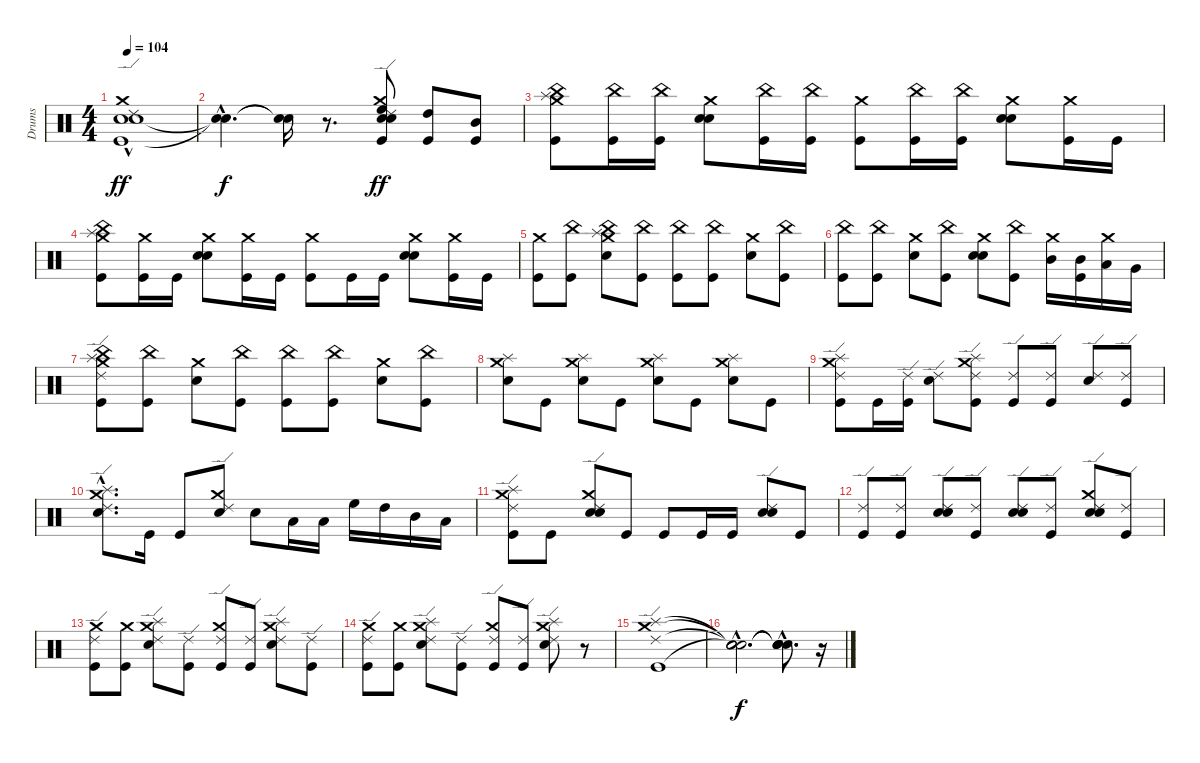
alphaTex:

\track ("Drums" "Drums") {instrument percussion}
\staff {score}
\articulation defaults
\ts (4 4)
\tempo 104
\clef neutral
\ks c
("Kick (hit)"{hac} "Snare (hit) 2"{hac} "Electric Snare (hit)"{hac} "Crash medium (hit)" "Ride (edge) 2").1{dy ff} |
("Snare (hit)"{hac t} "Snare (hit)"{hac t}).4{d dy f} ("Snare (hit)"{t} "Snare (hit)"{t}).16 r.8{d} ("Kick (hit)" "Snare (hit) 2" "Electric Snare (hit)" "High Floor Tom (hit)" "Crash medium (hit)" "Ride (edge) 2").8{dy ff} ("Kick (hit)" "High Tom (hit)").8 ("Kick (hit)" "Mid Tom (hit)").8 |
("Kick (hit)" "China (hit)" "Splash (hit)" "Crash medium (hit)").8 ("Kick (hit)" "China (hit)").16 ("Kick (hit)" "China (hit)").16 ("Snare (hit) 2" "Electric Snare (hit)" "Crash medium (hit)").8 ("Kick (hit)" "China (hit)").16 ("Kick (hit)" "China (hit)").16 ("Kick (hit)" "Crash medium (hit)").8 ("Kick (hit)" "China (hit)").16 ("Kick (hit)" "China (hit)").16 ("Snare (hit) 2" "Electric Snare (hit)" "Crash medium (hit)").8 ("Kick (hit)" "Crash medium (hit)").16 "Kick (hit)".16 |
("Kick (hit)" "China (hit)" "Splash (hit)" "Crash medium (hit)").8 ("Kick (hit)" "Crash medium (hit)").16 "Kick (hit)".16 ("Snare (hit) 2" "Electric Snare (hit)" "Crash medium (hit)").8 ("Kick (hit)" "Crash medium (hit)").16 "Kick (hit)".16 ("Kick (hit)" "Crash medium (hit)").8 "Kick (hit)".16 "Kick (hit)".16 ("Snare (hit) 2" "Electric Snare (hit)" "Crash medium (hit)").8 ("Kick (hit)" "Crash medium (hit)").16 "Kick (hit)".16 |
("Kick (hit)" "Crash medium (hit)").8 ("Kick (hit)" "China (hit)").8 ("Electric Snare (hit)" "China (hit)" "Splash (hit)" "Crash medium (hit)").8 ("Kick (hit)" "China (hit)").8 ("Kick (hit)" "China (hit)").8 ("Kick (hit)" "China (hit)").8 ("Electric Snare (hit)" "Crash medium (hit)").8 ("Kick (hit)" "China (hit)").8 |
("Kick (hit)" "China (hit)").8 ("Kick (hit)" "China (hit)").8 ("Electric Snare (hit)" "Crash medium (hit)").8 ("Kick (hit)" "China (hit)").8 ("Snare (hit) 2" "Electric Snare (hit)" "Crash medium (hit)").8 ("Kick (hit)" "China (hit)").8 ("Mid Tom (hit)" "Crash medium (hit)").16 ("Kick (hit)" "Mid Tom (hit)").16 ("Low Tom (hit)" "Crash medium (hit)").16 "Very Low Tom (hit)".16 |
("Kick (hit)" "China (hit)" "Splash (hit)" "Crash medium (hit)" "Ride (edge) 2").8 ("Kick (hit)" "China (hit)").8 ("Electric Snare (hit)" "Crash medium (hit)").8 ("Kick (hit)" "China (hit)").8 ("Kick (hit)" "China (hit)").8 ("Kick (hit)" "China (hit)").8 ("Electric Snare (hit)" "Crash medium (hit)").8 ("Kick (hit)" "China (hit)").8 |
("Electric Snare (hit)" "Splash (hit)" "Crash medium (hit)").8 "Kick (hit)".8 ("Electric Snare (hit)" "Splash (hit)" "Crash medium (hit)").8 "Kick (hit)".8 ("Electric Snare (hit)" "Splash (hit)" "Crash medium (hit)").8 "Kick (hit)".8 ("Electric Snare (hit)" "Splash (hit)" "Crash medium (hit)").8 "Kick (hit)".8 |
("Kick (hit)" "Splash (hit)" "Crash medium (hit)" "Ride (edge) 2").8 "Kick (hit)".16 ("Kick (hit)" "Ride (edge) 2").16 ("Electric Snare (hit)" "Ride (edge) 2").8 ("Kick (hit)" "Splash (hit)" "Crash medium (hit)" "Ride (edge) 2").8 ("Kick (hit)" "Ride (edge) 2").8 ("Kick (hit)" "Ride (edge) 2").8 ("Electric Snare (hit)" "Ride (edge) 2").8 ("Kick (hit)" "Ride (edge) 2").8 |
("Electric Snare (hit)"{hac} "Splash (hit)"{hac} "Crash medium (hit)"{hac} "Ride (edge) 2"{hac}).8{d} "Kick (hit)".16 "Kick (hit)".8 ("Electric Snare (hit)" "Crash medium (hit)" "Ride (edge) 2").8 "Electric Snare (hit)".8 "Low Tom (hit)".16 "Low Tom (hit)".16 "High Floor Tom (hit)".16 "High Tom (hit)".16 "Mid Tom (hit)".16 "Low Tom (hit)".16 |
("Kick (hit)" "Splash (hit)" "Crash medium (hit)" "Ride (edge) 2").8 "Kick (hit)".8 ("Snare (hit) 2" "Electric Snare (hit)" "Crash medium (hit)" "Ride (edge) 2").8 "Kick (hit)".8 "Kick (hit)".8 "Kick (hit)".16 "Kick (hit)".16 ("Snare (hit) 2" "Electric Snare (hit)" "Ride (edge) 2").8 "Kick (hit)".8 |
("Kick (hit)" "Ride (edge) 2").8 ("Kick (hit)" "Ride (edge) 2").8 ("Snare (hit) 2" "Electric Snare (hit)" "Ride (edge) 2").8 ("Kick (hit)" "Ride (edge) 2").8 ("Snare (hit) 2" "Electric Snare (hit)" "Ride (edge) 2").8 ("Kick (hit)" "Ride (edge) 2").8 ("Snare (hit) 2" "Electric Snare (hit)" "Crash medium (hit)" "Ride (edge) 2").8 ("Kick (hit)" "Ride (edge) 2").8 |
("Kick (hit)" "Crash medium (hit)" "Ride (edge) 2").8 ("Kick (hit)" "Crash medium (hit)").8 ("Electric Snare (hit)" "Splash (hit)" "Crash medium (hit)" "Ride (edge) 2").8 ("Kick (hit)" "Ride (edge) 2").8 ("Kick (hit)" "Crash medium (hit)" "Ride (edge) 2").8 ("Kick (hit)" "Ride (edge) 2").8 ("Electric Snare (hit)" "Splash (hit)" "Crash medium (hit)" "Ride (edge) 2").8 ("Kick (hit)" "Ride (edge) 2").8 |
("Kick (hit)" "Crash medium (hit)" "Ride (edge) 2").8 ("Kick (hit)" "Crash medium (hit)").8 ("Electric Snare (hit)" "Splash (hit)" "Crash medium (hit)" "Ride (edge) 2").8 ("Kick (hit)" "Ride (edge) 2").8 ("Kick (hit)" "Crash medium (hit)" "Ride (edge) 2").8 ("Kick (hit)" "Ride (edge) 2").8 ("Electric Snare (hit)" "Splash (hit)" "Crash medium (hit)" "Ride (edge) 2").8 r.8 |
("Kick (hit)" "Splash (hit)" "Crash medium (hit)" "Ride (edge) 2").1 |
("Snare (hit)"{hac t} "Snare (hit)"{hac t} "Snare (hit)"{hac t} "Snare (hit)"{hac t}).2{d dy f} ("Snare (hit)"{hac t} "Snare (hit)"{hac t} "Snare (hit)"{hac t} "Snare (hit)"{hac t}).8{d} r.16
